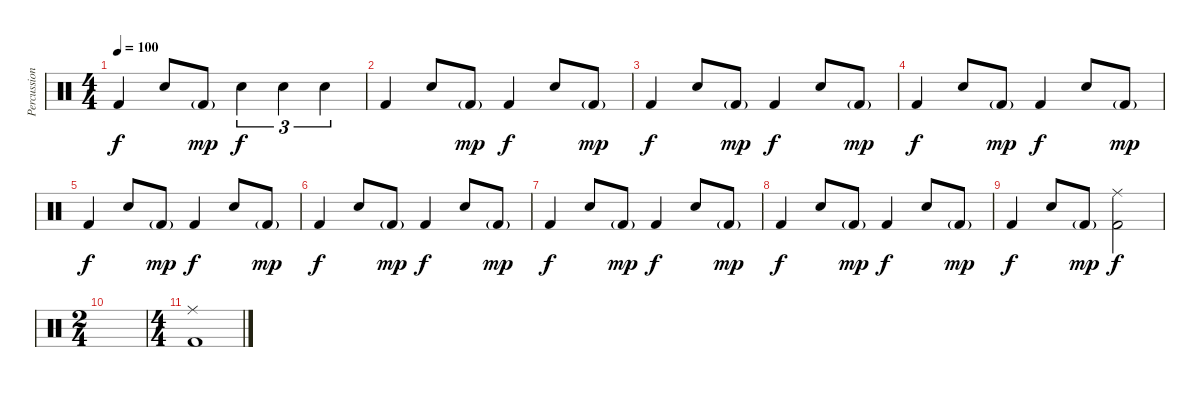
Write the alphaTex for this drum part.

\track ("Percussion" "Percussion") {instrument percussion}
\staff {score}
\articulation defaults
\ts (4 4)
\tempo 100
\clef neutral
\ks c "Kick (hit) 2".4{dy f} "Snare (hit) 2".8 "Kick (hit) 2"{g}.8{dy mp} "Snare (hit) 2".4{tu (3 2) dy f} "Snare (hit) 2".4{tu (3 2)} "Snare (hit) 2".4{tu (3 2)}
|
"Kick (hit) 2".4 "Snare (hit) 2".8 "Kick (hit) 2"{g}.8{dy mp} "Kick (hit) 2".4{dy f} "Snare (hit) 2".8 "Kick (hit) 2"{g}.8{dy mp} |
"Kick (hit) 2".4{dy f} "Snare (hit) 2".8 "Kick (hit) 2"{g}.8{dy mp} "Kick (hit) 2".4{dy f} "Snare (hit) 2".8 "Kick (hit) 2"{g}.8{dy mp} |
"Kick (hit) 2".4{dy f} "Snare (hit) 2".8 "Kick (hit) 2"{g}.8{dy mp} "Kick (hit) 2".4{dy f} "Snare (hit) 2".8 "Kick (hit) 2"{g}.8{dy mp} |
"Kick (hit) 2".4{dy f} "Snare (hit) 2".8 "Kick (hit) 2"{g}.8{dy mp} "Kick (hit) 2".4{dy f} "Snare (hit) 2".8 "Kick (hit) 2"{g}.8{dy mp} |
"Kick (hit) 2".4{dy f} "Snare (hit) 2".8 "Kick (hit) 2"{g}.8{dy mp} "Kick (hit) 2".4{dy f} "Snare (hit) 2".8 "Kick (hit) 2"{g}.8{dy mp} |
"Kick (hit) 2".4{dy f} "Snare (hit) 2".8 "Kick (hit) 2"{g}.8{dy mp} "Kick (hit) 2".4{dy f} "Snare (hit) 2".8 "Kick (hit) 2"{g}.8{dy mp} |
"Kick (hit) 2".4{dy f} "Snare (hit) 2".8 "Kick (hit) 2"{g}.8{dy mp} "Kick (hit) 2".4{dy f} "Snare (hit) 2".8 "Kick (hit) 2"{g}.8{dy mp} |
"Kick (hit) 2".4{dy f} "Snare (hit) 2".8 "Kick (hit) 2"{g}.8{dy mp} ("Ride (middle)" "Kick (hit) 2").2{dy f} |
\ts (2 4)
|
\ts (4 4)
("Ride (middle)" "Kick (hit) 2").1
